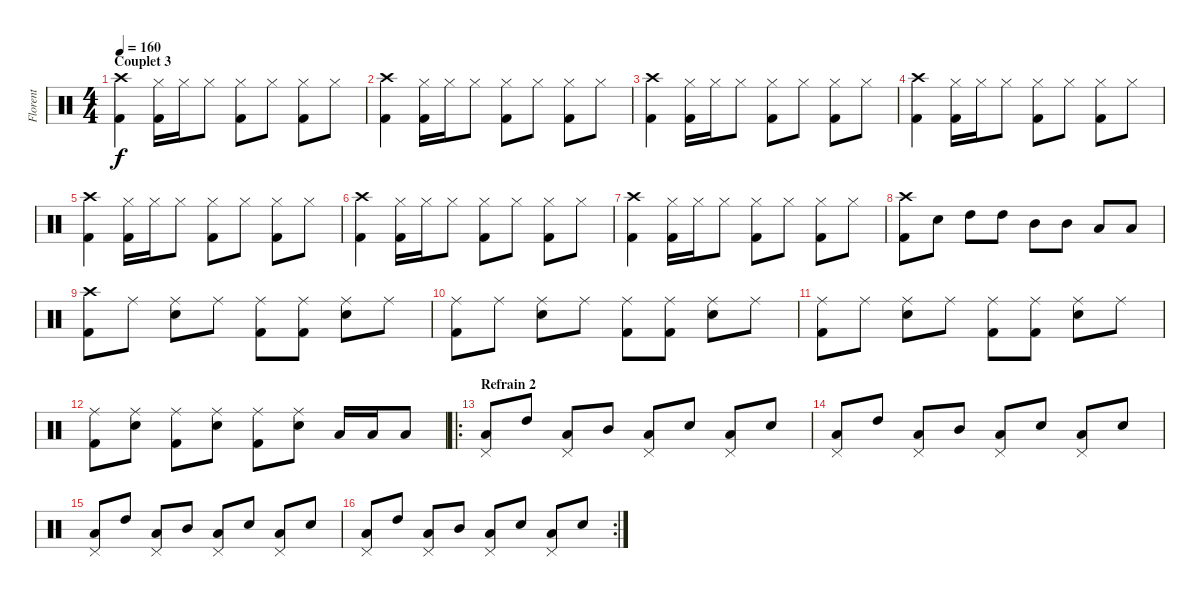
\track ("Florent" "Florent") {instrument percussion}
\staff {score}
\articulation defaults
\ts (4 4)
\section ("" "Couplet 3")
\tempo 160
\clef neutral
\ks c
("Crash high (hit)" "Kick (hit) 2").4{dy f} ("Hi-Hat (closed)" "Kick (hit) 2").16 "Hi-Hat (closed)".16 "Hi-Hat (closed)".8 ("Hi-Hat (closed)" "Kick (hit) 2").8 "Hi-Hat (closed)".8 ("Hi-Hat (closed)" "Kick (hit) 2").8 "Hi-Hat (closed)".8 |
("Crash high (hit)" "Kick (hit) 2").4 ("Hi-Hat (closed)" "Kick (hit) 2").16 "Hi-Hat (closed)".16 "Hi-Hat (closed)".8 ("Hi-Hat (closed)" "Kick (hit) 2").8 "Hi-Hat (closed)".8 ("Hi-Hat (closed)" "Kick (hit) 2").8 "Hi-Hat (closed)".8 |
("Crash high (hit)" "Kick (hit) 2").4 ("Hi-Hat (closed)" "Kick (hit) 2").16 "Hi-Hat (closed)".16 "Hi-Hat (closed)".8 ("Hi-Hat (closed)" "Kick (hit) 2").8 "Hi-Hat (closed)".8 ("Hi-Hat (closed)" "Kick (hit) 2").8 "Hi-Hat (closed)".8 |
("Crash high (hit)" "Kick (hit) 2").4 ("Hi-Hat (closed)" "Kick (hit) 2").16 "Hi-Hat (closed)".16 "Hi-Hat (closed)".8 ("Hi-Hat (closed)" "Kick (hit) 2").8 "Hi-Hat (closed)".8 ("Hi-Hat (closed)" "Kick (hit) 2").8 "Hi-Hat (closed)".8 |
("Crash high (hit)" "Kick (hit) 2").4 ("Hi-Hat (closed)" "Kick (hit) 2").16 "Hi-Hat (closed)".16 "Hi-Hat (closed)".8 ("Hi-Hat (closed)" "Kick (hit) 2").8 "Hi-Hat (closed)".8 ("Hi-Hat (closed)" "Kick (hit) 2").8 "Hi-Hat (closed)".8 |
("Crash high (hit)" "Kick (hit) 2").4 ("Hi-Hat (closed)" "Kick (hit) 2").16 "Hi-Hat (closed)".16 "Hi-Hat (closed)".8 ("Hi-Hat (closed)" "Kick (hit) 2").8 "Hi-Hat (closed)".8 ("Hi-Hat (closed)" "Kick (hit) 2").8 "Hi-Hat (closed)".8 |
("Crash high (hit)" "Kick (hit) 2").4 ("Hi-Hat (closed)" "Kick (hit) 2").16 "Hi-Hat (closed)".16 "Hi-Hat (closed)".8 ("Hi-Hat (closed)" "Kick (hit) 2").8 "Hi-Hat (closed)".8 ("Hi-Hat (closed)" "Kick (hit) 2").8 "Hi-Hat (closed)".8 |
("Crash high (hit)" "Kick (hit) 2").8 "Snare (hit) 2".8 "High Tom (hit)".8 "High Tom (hit)".8 "Mid Tom (hit)".8 "Mid Tom (hit)".8 "Low Tom (hit)".8 "Low Tom (hit)".8 |
("Crash high (hit)" "Kick (hit) 2").8 "Ride (middle)".8 ("Ride (middle)" "Snare (hit) 2").8 "Ride (middle)".8 ("Ride (middle)" "Kick (hit) 2").8 ("Ride (middle)" "Kick (hit) 2").8 ("Ride (middle)" "Snare (hit) 2").8 "Ride (middle)".8 |
("Ride (middle)" "Kick (hit) 2").8 "Ride (middle)".8 ("Ride (middle)" "Snare (hit) 2").8 "Ride (middle)".8 ("Ride (middle)" "Kick (hit) 2").8 ("Ride (middle)" "Kick (hit) 2").8 ("Ride (middle)" "Snare (hit) 2").8 "Ride (middle)".8 |
("Ride (middle)" "Kick (hit) 2").8 "Ride (middle)".8 ("Ride (middle)" "Snare (hit) 2").8 "Ride (middle)".8 ("Ride (middle)" "Kick (hit) 2").8 ("Ride (middle)" "Kick (hit) 2").8 ("Ride (middle)" "Snare (hit) 2").8 "Ride (middle)".8 |
("Ride (middle)" "Kick (hit) 2").8 ("Ride (middle)" "Snare (hit) 2").8 ("Ride (middle)" "Kick (hit) 2").8 ("Ride (middle)" "Snare (hit) 2").8 ("Ride (middle)" "Kick (hit) 2").8 ("Ride (middle)" "Snare (hit) 2").8 "Low Tom (hit)".16 "Low Tom (hit)".16 "Low Tom (hit)".8 |
\ro
\section ("" "Refrain 2")
("Low Tom (hit)" "Pedal Hi-Hat (hit)").8 "High Tom (hit)".8 ("Low Tom (hit)" "Pedal Hi-Hat (hit)").8 "Mid Tom (hit)".8 ("Low Tom (hit)" "Pedal Hi-Hat (hit)").8 "Snare (hit) 2".8 ("Low Tom (hit)" "Pedal Hi-Hat (hit)").8 "Snare (hit) 2".8 |
("Low Tom (hit)" "Pedal Hi-Hat (hit)").8 "High Tom (hit)".8 ("Low Tom (hit)" "Pedal Hi-Hat (hit)").8 "Mid Tom (hit)".8 ("Low Tom (hit)" "Pedal Hi-Hat (hit)").8 "Snare (hit) 2".8 ("Low Tom (hit)" "Pedal Hi-Hat (hit)").8 "Snare (hit) 2".8 |
("Low Tom (hit)" "Pedal Hi-Hat (hit)").8 "High Tom (hit)".8 ("Low Tom (hit)" "Pedal Hi-Hat (hit)").8 "Mid Tom (hit)".8 ("Low Tom (hit)" "Pedal Hi-Hat (hit)").8 "Snare (hit) 2".8 ("Low Tom (hit)" "Pedal Hi-Hat (hit)").8 "Snare (hit) 2".8 |
\rc 2
("Low Tom (hit)" "Pedal Hi-Hat (hit)").8 "High Tom (hit)".8 ("Low Tom (hit)" "Pedal Hi-Hat (hit)").8 "Mid Tom (hit)".8 ("Low Tom (hit)" "Pedal Hi-Hat (hit)").8 "Snare (hit) 2".8 ("Low Tom (hit)" "Pedal Hi-Hat (hit)").8 "Snare (hit) 2".8
